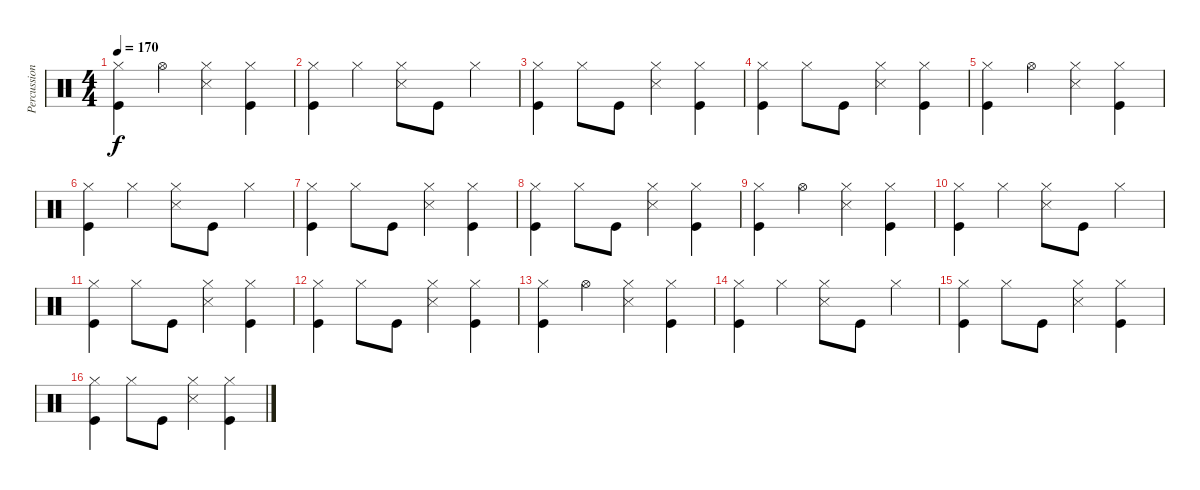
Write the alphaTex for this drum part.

\track ("Percussion" "Percussion") {instrument percussion}
\staff {score}
\articulation defaults
\ts (4 4)
\tempo 170
\clef neutral
\ks c
("Hi-Hat (closed)" "Kick (hit)").4{dy f} "Hi-Hat (open)".4 ("Hi-Hat (closed)" "Snare (side stick) 3").4 ("Hi-Hat (closed)" "Kick (hit)").4 |
("Hi-Hat (closed)" "Kick (hit)").4 "Hi-Hat (closed)".4 ("Hi-Hat (closed)" "Snare (side stick) 3").8 "Kick (hit)".8 "Hi-Hat (closed)".4 |
("Hi-Hat (closed)" "Kick (hit)").4 "Hi-Hat (closed)".8 "Kick (hit)".8 ("Hi-Hat (closed)" "Snare (side stick) 3").4 ("Hi-Hat (closed)" "Kick (hit)").4 |
("Hi-Hat (closed)" "Kick (hit)").4 "Hi-Hat (closed)".8 "Kick (hit)".8 ("Hi-Hat (closed)" "Snare (side stick) 3").4 ("Hi-Hat (closed)" "Kick (hit)").4 |
("Hi-Hat (closed)" "Kick (hit)").4 "Hi-Hat (open)".4 ("Hi-Hat (closed)" "Snare (side stick) 3").4 ("Hi-Hat (closed)" "Kick (hit)").4 |
("Hi-Hat (closed)" "Kick (hit)").4 "Hi-Hat (closed)".4 ("Hi-Hat (closed)" "Snare (side stick) 3").8 "Kick (hit)".8 "Hi-Hat (closed)".4 |
("Hi-Hat (closed)" "Kick (hit)").4 "Hi-Hat (closed)".8 "Kick (hit)".8 ("Hi-Hat (closed)" "Snare (side stick) 3").4 ("Hi-Hat (closed)" "Kick (hit)").4 |
("Hi-Hat (closed)" "Kick (hit)").4 "Hi-Hat (closed)".8 "Kick (hit)".8 ("Hi-Hat (closed)" "Snare (side stick) 3").4 ("Hi-Hat (closed)" "Kick (hit)").4 |
("Hi-Hat (closed)" "Kick (hit)").4 "Hi-Hat (open)".4 ("Hi-Hat (closed)" "Snare (side stick) 3").4 ("Hi-Hat (closed)" "Kick (hit)").4 |
("Hi-Hat (closed)" "Kick (hit)").4 "Hi-Hat (closed)".4 ("Hi-Hat (closed)" "Snare (side stick) 3").8 "Kick (hit)".8 "Hi-Hat (closed)".4 |
("Hi-Hat (closed)" "Kick (hit)").4 "Hi-Hat (closed)".8 "Kick (hit)".8 ("Hi-Hat (closed)" "Snare (side stick) 3").4 ("Hi-Hat (closed)" "Kick (hit)").4 |
("Hi-Hat (closed)" "Kick (hit)").4 "Hi-Hat (closed)".8 "Kick (hit)".8 ("Hi-Hat (closed)" "Snare (side stick) 3").4 ("Hi-Hat (closed)" "Kick (hit)").4 |
("Hi-Hat (closed)" "Kick (hit)").4 "Hi-Hat (open)".4 ("Hi-Hat (closed)" "Snare (side stick) 3").4 ("Hi-Hat (closed)" "Kick (hit)").4 |
("Hi-Hat (closed)" "Kick (hit)").4 "Hi-Hat (closed)".4 ("Hi-Hat (closed)" "Snare (side stick) 3").8 "Kick (hit)".8 "Hi-Hat (closed)".4 |
("Hi-Hat (closed)" "Kick (hit)").4 "Hi-Hat (closed)".8 "Kick (hit)".8 ("Hi-Hat (closed)" "Snare (side stick) 3").4 ("Hi-Hat (closed)" "Kick (hit)").4 |
("Hi-Hat (closed)" "Kick (hit)").4 "Hi-Hat (closed)".8 "Kick (hit)".8 ("Hi-Hat (closed)" "Snare (side stick) 3").4 ("Hi-Hat (closed)" "Kick (hit)").4
